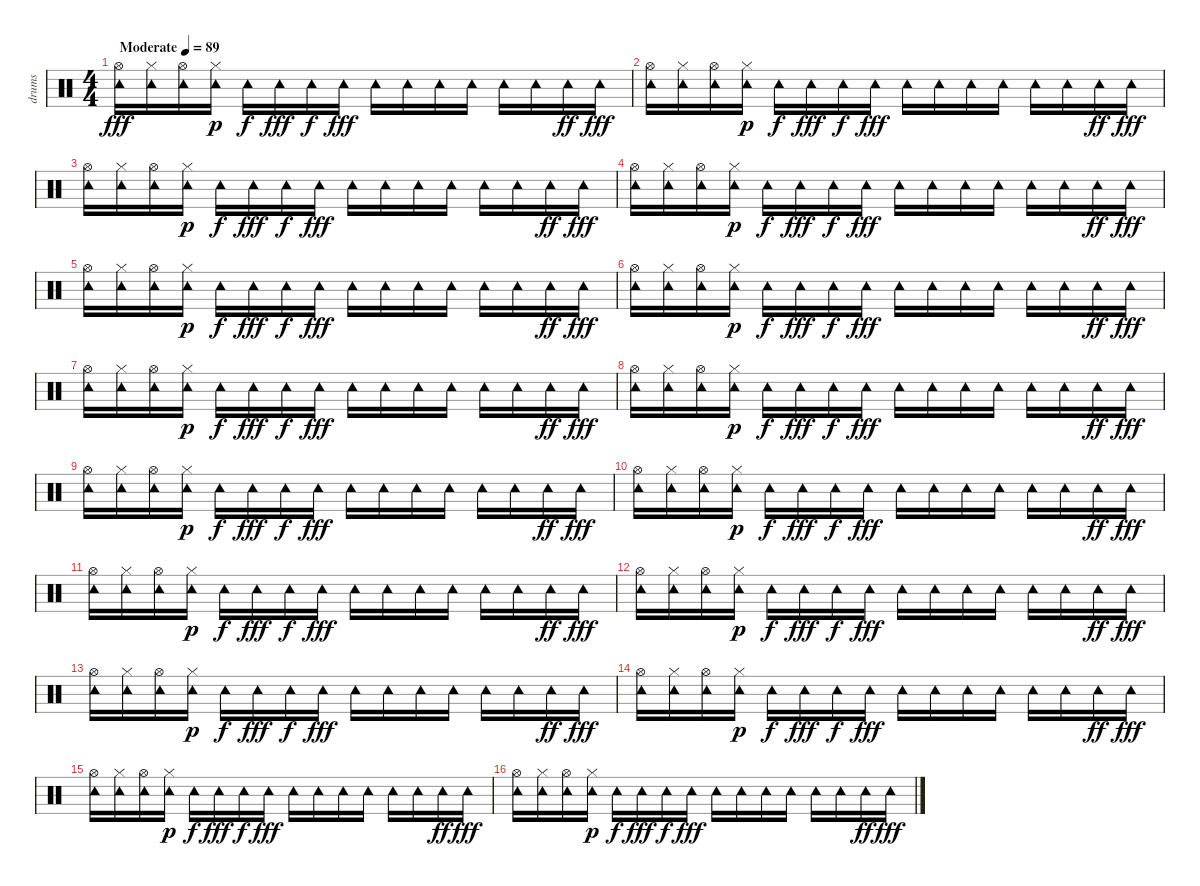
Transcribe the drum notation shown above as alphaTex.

\track ("drums" "drums") {instrument percussion}
\staff {score}
\articulation defaults
\ts (4 4)
\tempo (89 "Moderate")
\clef neutral
\ks c
("Hi-Hat (open)" "Tambourine (hit)").16{dy fff} ("Hi-Hat (closed)" "Tambourine (hit)").16 ("Hi-Hat (open)" "Tambourine (hit)").16 ("Hi-Hat (closed)" "Tambourine (hit)").16{dy p} "Tambourine (hit)".16{dy f} "Tambourine (hit)".16{dy fff} "Tambourine (hit)".16{dy f} "Tambourine (hit)".16{dy fff} "Tambourine (hit)".16 "Tambourine (hit)".16 "Tambourine (hit)".16 "Tambourine (hit)".16 "Tambourine (hit)".16 "Tambourine (hit)".16 "Tambourine (hit)".16{dy ff} "Tambourine (hit)".16{dy fff} |
("Hi-Hat (open)" "Tambourine (hit)").16 ("Hi-Hat (closed)" "Tambourine (hit)").16 ("Hi-Hat (open)" "Tambourine (hit)").16 ("Hi-Hat (closed)" "Tambourine (hit)").16{dy p} "Tambourine (hit)".16{dy f} "Tambourine (hit)".16{dy fff} "Tambourine (hit)".16{dy f} "Tambourine (hit)".16{dy fff} "Tambourine (hit)".16 "Tambourine (hit)".16 "Tambourine (hit)".16 "Tambourine (hit)".16 "Tambourine (hit)".16 "Tambourine (hit)".16 "Tambourine (hit)".16{dy ff} "Tambourine (hit)".16{dy fff} |
("Hi-Hat (open)" "Tambourine (hit)").16 ("Hi-Hat (closed)" "Tambourine (hit)").16 ("Hi-Hat (open)" "Tambourine (hit)").16 ("Hi-Hat (closed)" "Tambourine (hit)").16{dy p} "Tambourine (hit)".16{dy f} "Tambourine (hit)".16{dy fff} "Tambourine (hit)".16{dy f} "Tambourine (hit)".16{dy fff} "Tambourine (hit)".16 "Tambourine (hit)".16 "Tambourine (hit)".16 "Tambourine (hit)".16 "Tambourine (hit)".16 "Tambourine (hit)".16 "Tambourine (hit)".16{dy ff} "Tambourine (hit)".16{dy fff} |
("Hi-Hat (open)" "Tambourine (hit)").16 ("Hi-Hat (closed)" "Tambourine (hit)").16 ("Hi-Hat (open)" "Tambourine (hit)").16 ("Hi-Hat (closed)" "Tambourine (hit)").16{dy p} "Tambourine (hit)".16{dy f} "Tambourine (hit)".16{dy fff} "Tambourine (hit)".16{dy f} "Tambourine (hit)".16{dy fff} "Tambourine (hit)".16 "Tambourine (hit)".16 "Tambourine (hit)".16 "Tambourine (hit)".16 "Tambourine (hit)".16 "Tambourine (hit)".16 "Tambourine (hit)".16{dy ff} "Tambourine (hit)".16{dy fff} |
("Hi-Hat (open)" "Tambourine (hit)").16 ("Hi-Hat (closed)" "Tambourine (hit)").16 ("Hi-Hat (open)" "Tambourine (hit)").16 ("Hi-Hat (closed)" "Tambourine (hit)").16{dy p} "Tambourine (hit)".16{dy f} "Tambourine (hit)".16{dy fff} "Tambourine (hit)".16{dy f} "Tambourine (hit)".16{dy fff} "Tambourine (hit)".16 "Tambourine (hit)".16 "Tambourine (hit)".16 "Tambourine (hit)".16 "Tambourine (hit)".16 "Tambourine (hit)".16 "Tambourine (hit)".16{dy ff} "Tambourine (hit)".16{dy fff} |
("Hi-Hat (open)" "Tambourine (hit)").16 ("Hi-Hat (closed)" "Tambourine (hit)").16 ("Hi-Hat (open)" "Tambourine (hit)").16 ("Hi-Hat (closed)" "Tambourine (hit)").16{dy p} "Tambourine (hit)".16{dy f} "Tambourine (hit)".16{dy fff} "Tambourine (hit)".16{dy f} "Tambourine (hit)".16{dy fff} "Tambourine (hit)".16 "Tambourine (hit)".16 "Tambourine (hit)".16 "Tambourine (hit)".16 "Tambourine (hit)".16 "Tambourine (hit)".16 "Tambourine (hit)".16{dy ff} "Tambourine (hit)".16{dy fff} |
("Hi-Hat (open)" "Tambourine (hit)").16 ("Hi-Hat (closed)" "Tambourine (hit)").16 ("Hi-Hat (open)" "Tambourine (hit)").16 ("Hi-Hat (closed)" "Tambourine (hit)").16{dy p} "Tambourine (hit)".16{dy f} "Tambourine (hit)".16{dy fff} "Tambourine (hit)".16{dy f} "Tambourine (hit)".16{dy fff} "Tambourine (hit)".16 "Tambourine (hit)".16 "Tambourine (hit)".16 "Tambourine (hit)".16 "Tambourine (hit)".16 "Tambourine (hit)".16 "Tambourine (hit)".16{dy ff} "Tambourine (hit)".16{dy fff} |
("Hi-Hat (open)" "Tambourine (hit)").16 ("Hi-Hat (closed)" "Tambourine (hit)").16 ("Hi-Hat (open)" "Tambourine (hit)").16 ("Hi-Hat (closed)" "Tambourine (hit)").16{dy p} "Tambourine (hit)".16{dy f} "Tambourine (hit)".16{dy fff} "Tambourine (hit)".16{dy f} "Tambourine (hit)".16{dy fff} "Tambourine (hit)".16 "Tambourine (hit)".16 "Tambourine (hit)".16 "Tambourine (hit)".16 "Tambourine (hit)".16 "Tambourine (hit)".16 "Tambourine (hit)".16{dy ff} "Tambourine (hit)".16{dy fff} |
("Hi-Hat (open)" "Tambourine (hit)").16 ("Hi-Hat (closed)" "Tambourine (hit)").16 ("Hi-Hat (open)" "Tambourine (hit)").16 ("Hi-Hat (closed)" "Tambourine (hit)").16{dy p} "Tambourine (hit)".16{dy f} "Tambourine (hit)".16{dy fff} "Tambourine (hit)".16{dy f} "Tambourine (hit)".16{dy fff} "Tambourine (hit)".16 "Tambourine (hit)".16 "Tambourine (hit)".16 "Tambourine (hit)".16 "Tambourine (hit)".16 "Tambourine (hit)".16 "Tambourine (hit)".16{dy ff} "Tambourine (hit)".16{dy fff} |
("Hi-Hat (open)" "Tambourine (hit)").16 ("Hi-Hat (closed)" "Tambourine (hit)").16 ("Hi-Hat (open)" "Tambourine (hit)").16 ("Hi-Hat (closed)" "Tambourine (hit)").16{dy p} "Tambourine (hit)".16{dy f} "Tambourine (hit)".16{dy fff} "Tambourine (hit)".16{dy f} "Tambourine (hit)".16{dy fff} "Tambourine (hit)".16 "Tambourine (hit)".16 "Tambourine (hit)".16 "Tambourine (hit)".16 "Tambourine (hit)".16 "Tambourine (hit)".16 "Tambourine (hit)".16{dy ff} "Tambourine (hit)".16{dy fff} |
("Hi-Hat (open)" "Tambourine (hit)").16 ("Hi-Hat (closed)" "Tambourine (hit)").16 ("Hi-Hat (open)" "Tambourine (hit)").16 ("Hi-Hat (closed)" "Tambourine (hit)").16{dy p} "Tambourine (hit)".16{dy f} "Tambourine (hit)".16{dy fff} "Tambourine (hit)".16{dy f} "Tambourine (hit)".16{dy fff} "Tambourine (hit)".16 "Tambourine (hit)".16 "Tambourine (hit)".16 "Tambourine (hit)".16 "Tambourine (hit)".16 "Tambourine (hit)".16 "Tambourine (hit)".16{dy ff} "Tambourine (hit)".16{dy fff} |
("Hi-Hat (open)" "Tambourine (hit)").16 ("Hi-Hat (closed)" "Tambourine (hit)").16 ("Hi-Hat (open)" "Tambourine (hit)").16 ("Hi-Hat (closed)" "Tambourine (hit)").16{dy p} "Tambourine (hit)".16{dy f} "Tambourine (hit)".16{dy fff} "Tambourine (hit)".16{dy f} "Tambourine (hit)".16{dy fff} "Tambourine (hit)".16 "Tambourine (hit)".16 "Tambourine (hit)".16 "Tambourine (hit)".16 "Tambourine (hit)".16 "Tambourine (hit)".16 "Tambourine (hit)".16{dy ff} "Tambourine (hit)".16{dy fff} |
("Hi-Hat (open)" "Tambourine (hit)").16 ("Hi-Hat (closed)" "Tambourine (hit)").16 ("Hi-Hat (open)" "Tambourine (hit)").16 ("Hi-Hat (closed)" "Tambourine (hit)").16{dy p} "Tambourine (hit)".16{dy f} "Tambourine (hit)".16{dy fff} "Tambourine (hit)".16{dy f} "Tambourine (hit)".16{dy fff} "Tambourine (hit)".16 "Tambourine (hit)".16 "Tambourine (hit)".16 "Tambourine (hit)".16 "Tambourine (hit)".16 "Tambourine (hit)".16 "Tambourine (hit)".16{dy ff} "Tambourine (hit)".16{dy fff} |
("Hi-Hat (open)" "Tambourine (hit)").16 ("Hi-Hat (closed)" "Tambourine (hit)").16 ("Hi-Hat (open)" "Tambourine (hit)").16 ("Hi-Hat (closed)" "Tambourine (hit)").16{dy p} "Tambourine (hit)".16{dy f} "Tambourine (hit)".16{dy fff} "Tambourine (hit)".16{dy f} "Tambourine (hit)".16{dy fff} "Tambourine (hit)".16 "Tambourine (hit)".16 "Tambourine (hit)".16 "Tambourine (hit)".16 "Tambourine (hit)".16 "Tambourine (hit)".16 "Tambourine (hit)".16{dy ff} "Tambourine (hit)".16{dy fff} |
("Hi-Hat (open)" "Tambourine (hit)").16 ("Hi-Hat (closed)" "Tambourine (hit)").16 ("Hi-Hat (open)" "Tambourine (hit)").16 ("Hi-Hat (closed)" "Tambourine (hit)").16{dy p} "Tambourine (hit)".16{dy f} "Tambourine (hit)".16{dy fff} "Tambourine (hit)".16{dy f} "Tambourine (hit)".16{dy fff} "Tambourine (hit)".16 "Tambourine (hit)".16 "Tambourine (hit)".16 "Tambourine (hit)".16 "Tambourine (hit)".16 "Tambourine (hit)".16 "Tambourine (hit)".16{dy ff} "Tambourine (hit)".16{dy fff} |
("Hi-Hat (open)" "Tambourine (hit)").16 ("Hi-Hat (closed)" "Tambourine (hit)").16 ("Hi-Hat (open)" "Tambourine (hit)").16 ("Hi-Hat (closed)" "Tambourine (hit)").16{dy p} "Tambourine (hit)".16{dy f} "Tambourine (hit)".16{dy fff} "Tambourine (hit)".16{dy f} "Tambourine (hit)".16{dy fff} "Tambourine (hit)".16 "Tambourine (hit)".16 "Tambourine (hit)".16 "Tambourine (hit)".16 "Tambourine (hit)".16 "Tambourine (hit)".16 "Tambourine (hit)".16{dy ff} "Tambourine (hit)".16{dy fff}
